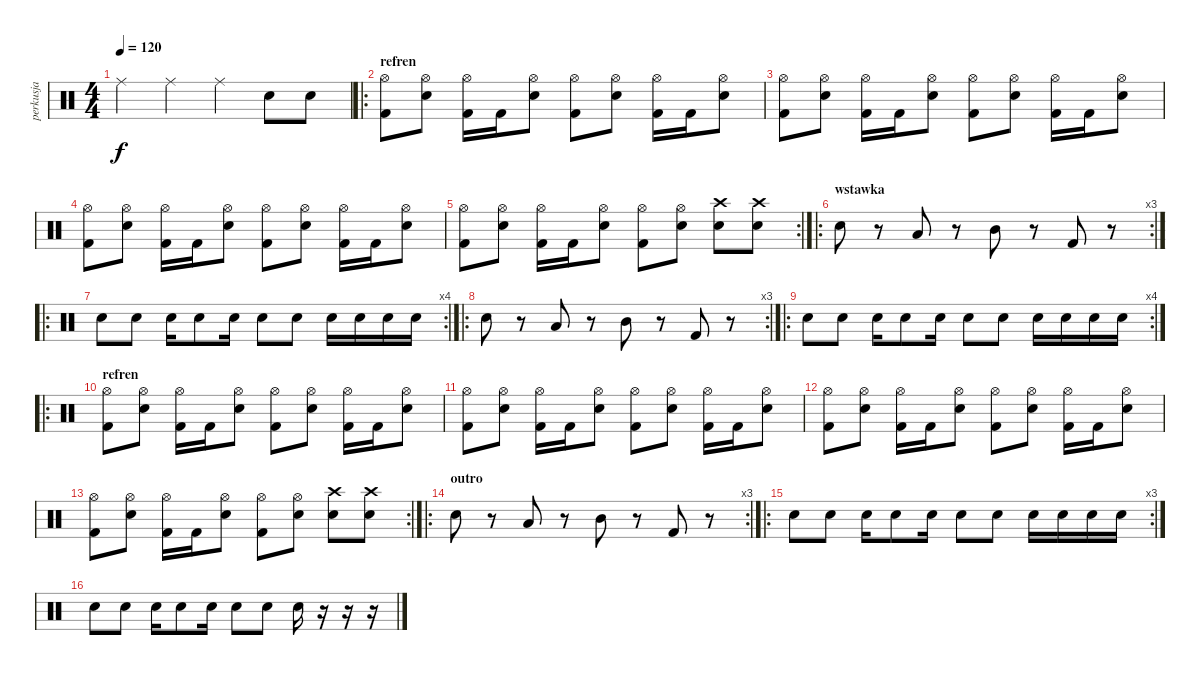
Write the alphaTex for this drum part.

\track ("perkusja" "perkusja") {instrument percussion}
\staff {score}
\articulation defaults
\ts (4 4)
\tempo 120
\clef neutral
\ks c "Ride (middle)".4{dy f} "Ride (middle)".4 "Ride (middle)".4 "Electric Snare (hit)".8 "Electric Snare (hit)".8
|
\ro
\section ("" "refren")
("Hi-Hat (open)" "Kick (hit) 2").8 ("Hi-Hat (open)" "Electric Snare (hit)").8 ("Hi-Hat (open)" "Kick (hit) 2").16 "Kick (hit) 2".16 ("Hi-Hat (open)" "Electric Snare (hit)").8 ("Hi-Hat (open)" "Kick (hit) 2").8 ("Hi-Hat (open)" "Electric Snare (hit)").8 ("Hi-Hat (open)" "Kick (hit) 2").16 "Kick (hit) 2".16 ("Hi-Hat (open)" "Electric Snare (hit)").8 |
("Hi-Hat (open)" "Kick (hit) 2").8 ("Hi-Hat (open)" "Electric Snare (hit)").8 ("Hi-Hat (open)" "Kick (hit) 2").16 "Kick (hit) 2".16 ("Hi-Hat (open)" "Electric Snare (hit)").8 ("Hi-Hat (open)" "Kick (hit) 2").8 ("Hi-Hat (open)" "Electric Snare (hit)").8 ("Hi-Hat (open)" "Kick (hit) 2").16 "Kick (hit) 2".16 ("Hi-Hat (open)" "Electric Snare (hit)").8 |
("Hi-Hat (open)" "Kick (hit) 2").8 ("Hi-Hat (open)" "Electric Snare (hit)").8 ("Hi-Hat (open)" "Kick (hit) 2").16 "Kick (hit) 2".16 ("Hi-Hat (open)" "Electric Snare (hit)").8 ("Hi-Hat (open)" "Kick (hit) 2").8 ("Hi-Hat (open)" "Electric Snare (hit)").8 ("Hi-Hat (open)" "Kick (hit) 2").16 "Kick (hit) 2".16 ("Hi-Hat (open)" "Electric Snare (hit)").8 |
\rc 2
("Hi-Hat (open)" "Kick (hit) 2").8 ("Hi-Hat (open)" "Electric Snare (hit)").8 ("Hi-Hat (open)" "Kick (hit) 2").16 "Kick (hit) 2".16 ("Hi-Hat (open)" "Electric Snare (hit)").8 ("Hi-Hat (open)" "Kick (hit) 2").8 ("Hi-Hat (open)" "Electric Snare (hit)").8 ("Crash high (hit)" "Electric Snare (hit)").8 ("Crash high (hit)" "Electric Snare (hit)").8 |
\ro
\rc 3
\section ("" "wstawka")
"Electric Snare (hit)".8 r.8 "Low Tom (hit)".8 r.8 "Mid Tom (hit)".8 r.8 "Kick (hit) 2".8 r.8 |
\ro
\rc 4 "Electric Snare (hit)".8 "Electric Snare (hit)".8 "Electric Snare (hit)".16 "Electric Snare (hit)".8 "Electric Snare (hit)".16 "Electric Snare (hit)".8 "Electric Snare (hit)".8 "Electric Snare (hit)".16 "Electric Snare (hit)".16 "Electric Snare (hit)".16 "Electric Snare (hit)".16
|
\ro
\rc 3 "Electric Snare (hit)".8
r.8 "Low Tom (hit)".8 r.8 "Mid Tom (hit)".8 r.8 "Kick (hit) 2".8 r.8 |
\ro
\rc 4 "Electric Snare (hit)".8 "Electric Snare (hit)".8 "Electric Snare (hit)".16 "Electric Snare (hit)".8 "Electric Snare (hit)".16 "Electric Snare (hit)".8 "Electric Snare (hit)".8 "Electric Snare (hit)".16 "Electric Snare (hit)".16 "Electric Snare (hit)".16 "Electric Snare (hit)".16
|
\ro
\section ("" "refren")
("Hi-Hat (open)" "Kick (hit) 2").8 ("Hi-Hat (open)" "Electric Snare (hit)").8 ("Hi-Hat (open)" "Kick (hit) 2").16 "Kick (hit) 2".16 ("Hi-Hat (open)" "Electric Snare (hit)").8 ("Hi-Hat (open)" "Kick (hit) 2").8 ("Hi-Hat (open)" "Electric Snare (hit)").8 ("Hi-Hat (open)" "Kick (hit) 2").16 "Kick (hit) 2".16 ("Hi-Hat (open)" "Electric Snare (hit)").8 |
("Hi-Hat (open)" "Kick (hit) 2").8 ("Hi-Hat (open)" "Electric Snare (hit)").8 ("Hi-Hat (open)" "Kick (hit) 2").16 "Kick (hit) 2".16 ("Hi-Hat (open)" "Electric Snare (hit)").8 ("Hi-Hat (open)" "Kick (hit) 2").8 ("Hi-Hat (open)" "Electric Snare (hit)").8 ("Hi-Hat (open)" "Kick (hit) 2").16 "Kick (hit) 2".16 ("Hi-Hat (open)" "Electric Snare (hit)").8 |
("Hi-Hat (open)" "Kick (hit) 2").8 ("Hi-Hat (open)" "Electric Snare (hit)").8 ("Hi-Hat (open)" "Kick (hit) 2").16 "Kick (hit) 2".16 ("Hi-Hat (open)" "Electric Snare (hit)").8 ("Hi-Hat (open)" "Kick (hit) 2").8 ("Hi-Hat (open)" "Electric Snare (hit)").8 ("Hi-Hat (open)" "Kick (hit) 2").16 "Kick (hit) 2".16 ("Hi-Hat (open)" "Electric Snare (hit)").8 |
\rc 2
("Hi-Hat (open)" "Kick (hit) 2").8 ("Hi-Hat (open)" "Electric Snare (hit)").8 ("Hi-Hat (open)" "Kick (hit) 2").16 "Kick (hit) 2".16 ("Hi-Hat (open)" "Electric Snare (hit)").8 ("Hi-Hat (open)" "Kick (hit) 2").8 ("Hi-Hat (open)" "Electric Snare (hit)").8 ("Crash high (hit)" "Electric Snare (hit)").8 ("Crash high (hit)" "Electric Snare (hit)").8 |
\ro
\rc 3
\section ("" "outro")
"Electric Snare (hit)".8 r.8 "Low Tom (hit)".8 r.8 "Mid Tom (hit)".8 r.8 "Kick (hit) 2".8 r.8 |
\ro
\rc 3 "Electric Snare (hit)".8 "Electric Snare (hit)".8 "Electric Snare (hit)".16 "Electric Snare (hit)".8 "Electric Snare (hit)".16 "Electric Snare (hit)".8 "Electric Snare (hit)".8 "Electric Snare (hit)".16 "Electric Snare (hit)".16 "Electric Snare (hit)".16 "Electric Snare (hit)".16
|
"Electric Snare (hit)".8 "Electric Snare (hit)".8 "Electric Snare (hit)".16 "Electric Snare (hit)".8 "Electric Snare (hit)".16 "Electric Snare (hit)".8 "Electric Snare (hit)".8 "Electric Snare (hit)".16 r.16 r.16 r.16
